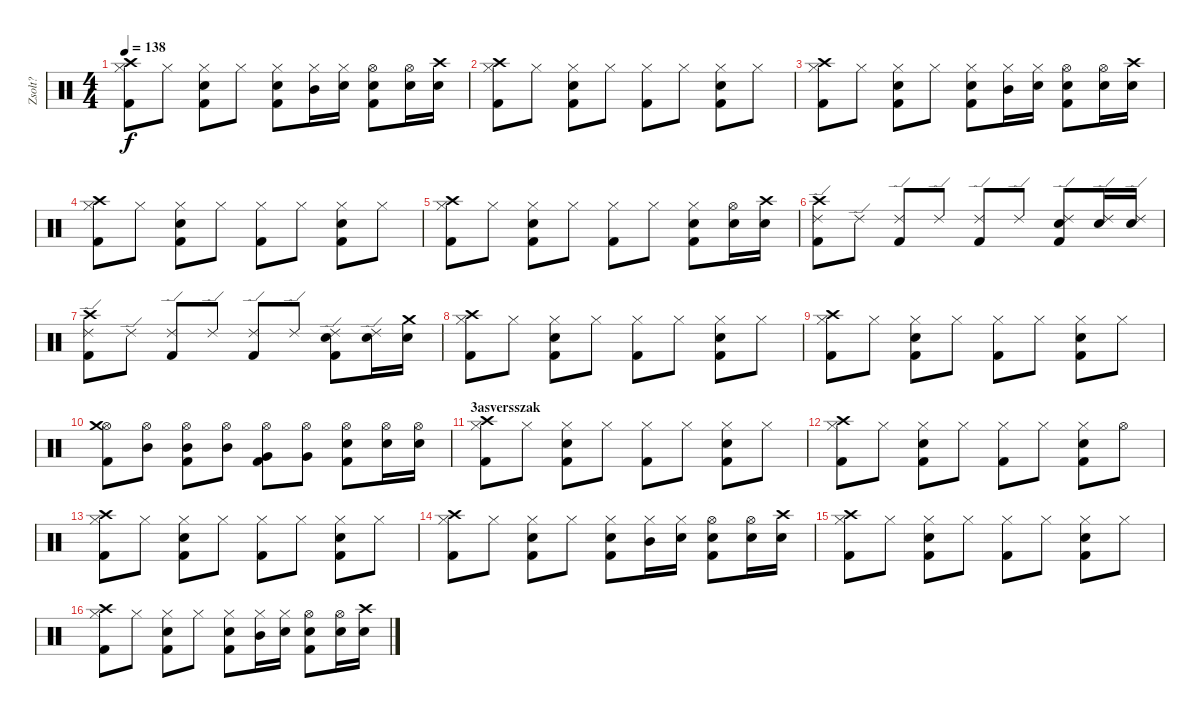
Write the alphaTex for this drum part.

\track ("Zsolt?" "Zsolt?") {instrument percussion}
\staff {score}
\articulation defaults
\ts (4 4)
\tempo 138
\clef neutral
\ks c
("Hi-Hat (closed)" "Crash high (hit)" "Kick (hit) 2").8{dy f} "Hi-Hat (closed)".8 ("Hi-Hat (closed)" "Snare (hit) 2" "Kick (hit) 2").8 "Hi-Hat (closed)".8 ("Hi-Hat (closed)" "Snare (hit) 2" "Kick (hit) 2").8 ("Hi-Hat (closed)" "Mid Tom (hit)").16 ("Hi-Hat (closed)" "Snare (hit) 2").16 ("Hi-Hat (open)" "Snare (hit) 2" "Kick (hit) 2").8 ("Hi-Hat (open)" "Snare (hit) 2").16 ("Crash high (hit)" "Snare (hit) 2").16 |
("Hi-Hat (closed)" "Crash high (hit)" "Kick (hit) 2").8 "Hi-Hat (closed)".8 ("Hi-Hat (closed)" "Snare (hit) 2" "Kick (hit) 2").8 "Hi-Hat (closed)".8 ("Hi-Hat (closed)" "Kick (hit) 2").8 "Hi-Hat (closed)".8 ("Hi-Hat (closed)" "Snare (hit) 2" "Kick (hit) 2").8 "Hi-Hat (closed)".8 |
("Hi-Hat (closed)" "Crash high (hit)" "Kick (hit) 2").8 "Hi-Hat (closed)".8 ("Hi-Hat (closed)" "Snare (hit) 2" "Kick (hit) 2").8 "Hi-Hat (closed)".8 ("Hi-Hat (closed)" "Snare (hit) 2" "Kick (hit) 2").8 ("Hi-Hat (closed)" "Mid Tom (hit)").16 ("Hi-Hat (closed)" "Snare (hit) 2").16 ("Hi-Hat (open)" "Snare (hit) 2" "Kick (hit) 2").8 ("Hi-Hat (open)" "Snare (hit) 2").16 ("Crash high (hit)" "Snare (hit) 2").16 |
("Hi-Hat (closed)" "Crash high (hit)" "Kick (hit) 2").8 "Hi-Hat (closed)".8 ("Hi-Hat (closed)" "Snare (hit) 2" "Kick (hit) 2").8 "Hi-Hat (closed)".8 ("Hi-Hat (closed)" "Kick (hit) 2").8 "Hi-Hat (closed)".8 ("Hi-Hat (closed)" "Snare (hit) 2" "Kick (hit) 2").8 "Hi-Hat (closed)".8 |
("Hi-Hat (closed)" "Crash high (hit)" "Kick (hit) 2").8 "Hi-Hat (closed)".8 ("Hi-Hat (closed)" "Snare (hit) 2" "Kick (hit) 2").8 "Hi-Hat (closed)".8 ("Hi-Hat (closed)" "Kick (hit) 2").8 "Hi-Hat (closed)".8 ("Hi-Hat (closed)" "Snare (hit) 2" "Kick (hit) 2").8 ("Hi-Hat (open)" "Snare (hit) 2").16 ("Crash high (hit)" "Snare (hit) 2").16 |
("Ride (edge) 2" "Crash high (hit)" "Kick (hit) 2").8 "Ride (edge) 2".8 ("Ride (edge) 2" "Kick (hit) 2").8 "Ride (edge) 2".8 ("Ride (edge) 2" "Kick (hit) 2").8 "Ride (edge) 2".8 ("Ride (edge) 2" "Snare (hit) 2" "Kick (hit) 2").8 ("Ride (edge) 2" "Snare (hit) 2").16 ("Ride (edge) 2" "Snare (hit) 2").16 |
("Ride (edge) 2" "Crash high (hit)" "Kick (hit) 2").8 "Ride (edge) 2".8 ("Ride (edge) 2" "Kick (hit) 2").8 "Ride (edge) 2".8 ("Ride (edge) 2" "Kick (hit) 2").8 "Ride (edge) 2".8 ("Ride (edge) 2" "Snare (hit) 2" "Kick (hit) 2").8 ("Ride (edge) 2" "Snare (hit) 2").16 ("Crash medium (hit)" "Snare (hit) 2").16 |
("Hi-Hat (closed)" "Crash high (hit)" "Kick (hit) 2").8 "Hi-Hat (closed)".8 ("Hi-Hat (closed)" "Snare (hit) 2" "Kick (hit) 2").8 "Hi-Hat (closed)".8 ("Hi-Hat (closed)" "Kick (hit) 2").8 "Hi-Hat (closed)".8 ("Hi-Hat (closed)" "Snare (hit) 2" "Kick (hit) 2").8 "Hi-Hat (closed)".8 |
("Hi-Hat (closed)" "Crash high (hit)" "Kick (hit) 2").8 "Hi-Hat (closed)".8 ("Hi-Hat (closed)" "Snare (hit) 2" "Kick (hit) 2").8 "Hi-Hat (closed)".8 ("Hi-Hat (closed)" "Kick (hit) 2").8 "Hi-Hat (closed)".8 ("Hi-Hat (closed)" "Snare (hit) 2" "Kick (hit) 2").8 "Hi-Hat (closed)".8 |
("Hi-Hat (open)" "Crash medium (hit)" "Kick (hit) 2").8 ("Hi-Hat (open)" "Mid Tom (hit)").8 ("Hi-Hat (open)" "Mid Tom (hit)" "Kick (hit) 2").8 ("Hi-Hat (open)" "Mid Tom (hit)").8 ("Hi-Hat (open)" "Very Low Tom (hit)" "Kick (hit) 2").8 ("Hi-Hat (open)" "Very Low Tom (hit)").8 ("Hi-Hat (open)" "Snare (hit) 2" "Kick (hit) 2").8 ("Hi-Hat (open)" "Snare (hit) 2").16 ("Hi-Hat (open)" "Snare (hit) 2").16 |
\section ("" "3asversszak")
("Hi-Hat (closed)" "Crash high (hit)" "Kick (hit) 2").8 "Hi-Hat (closed)".8 ("Hi-Hat (closed)" "Snare (hit) 2" "Kick (hit) 2").8 "Hi-Hat (closed)".8 ("Hi-Hat (closed)" "Kick (hit) 2").8 "Hi-Hat (closed)".8 ("Hi-Hat (closed)" "Snare (hit) 2" "Kick (hit) 2").8 "Hi-Hat (closed)".8 |
("Hi-Hat (closed)" "Crash high (hit)" "Kick (hit) 2").8 "Hi-Hat (closed)".8 ("Hi-Hat (closed)" "Snare (hit) 2" "Kick (hit) 2").8 "Hi-Hat (closed)".8 ("Hi-Hat (closed)" "Kick (hit) 2").8 "Hi-Hat (closed)".8 ("Hi-Hat (closed)" "Snare (hit) 2" "Kick (hit) 2").8 "Hi-Hat (open)".8 |
("Hi-Hat (closed)" "Crash high (hit)" "Kick (hit) 2").8 "Hi-Hat (closed)".8 ("Hi-Hat (closed)" "Snare (hit) 2" "Kick (hit) 2").8 "Hi-Hat (closed)".8 ("Hi-Hat (closed)" "Kick (hit) 2").8 "Hi-Hat (closed)".8 ("Hi-Hat (closed)" "Snare (hit) 2" "Kick (hit) 2").8 "Hi-Hat (closed)".8 |
("Hi-Hat (closed)" "Crash high (hit)" "Kick (hit) 2").8 "Hi-Hat (closed)".8 ("Hi-Hat (closed)" "Snare (hit) 2" "Kick (hit) 2").8 "Hi-Hat (closed)".8 ("Hi-Hat (closed)" "Snare (hit) 2" "Kick (hit) 2").8 ("Hi-Hat (closed)" "Mid Tom (hit)").16 ("Hi-Hat (closed)" "Snare (hit) 2").16 ("Hi-Hat (open)" "Snare (hit) 2" "Kick (hit) 2").8 ("Hi-Hat (open)" "Snare (hit) 2").16 ("Crash high (hit)" "Snare (hit) 2").16 |
("Hi-Hat (closed)" "Crash high (hit)" "Kick (hit) 2").8 "Hi-Hat (closed)".8 ("Hi-Hat (closed)" "Snare (hit) 2" "Kick (hit) 2").8 "Hi-Hat (closed)".8 ("Hi-Hat (closed)" "Kick (hit) 2").8 "Hi-Hat (closed)".8 ("Hi-Hat (closed)" "Snare (hit) 2" "Kick (hit) 2").8 "Hi-Hat (closed)".8 |
("Hi-Hat (closed)" "Crash high (hit)" "Kick (hit) 2").8 "Hi-Hat (closed)".8 ("Hi-Hat (closed)" "Snare (hit) 2" "Kick (hit) 2").8 "Hi-Hat (closed)".8 ("Hi-Hat (closed)" "Snare (hit) 2" "Kick (hit) 2").8 ("Hi-Hat (closed)" "Mid Tom (hit)").16 ("Hi-Hat (closed)" "Snare (hit) 2").16 ("Hi-Hat (open)" "Snare (hit) 2" "Kick (hit) 2").8 ("Hi-Hat (open)" "Snare (hit) 2").16 ("Crash high (hit)" "Snare (hit) 2").16
